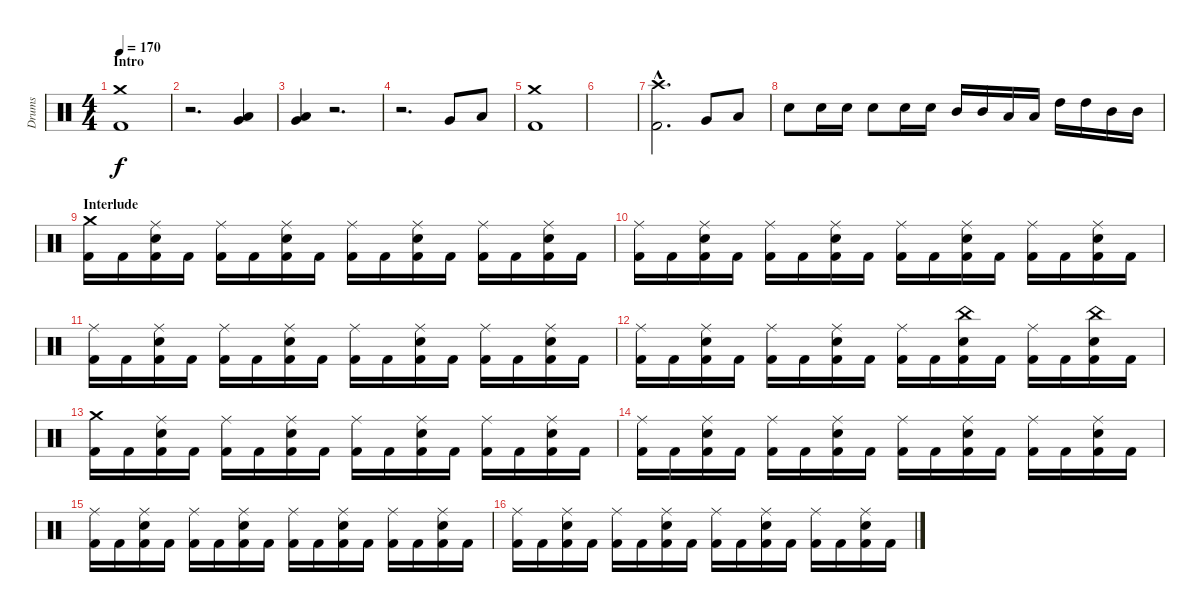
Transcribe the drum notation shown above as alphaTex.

\track ("Drums" "Drums") {instrument percussion}
\staff {score}
\articulation defaults
\ts (4 4)
\section ("" "Intro")
\tempo 170
\clef neutral
\ks c
("Crash medium (hit)" "Kick (hit) 2").1{dy f} |
r.2{d} ("Very Low Tom (hit)" "Low Tom (hit)").4 |
("Very Low Tom (hit)" "Low Tom (hit)").4 r.2{d} |
r.2{d} "Very Low Tom (hit)".8 "Low Tom (hit)".8 |
("Crash medium (hit)" "Kick (hit) 2").1 |
|
("Crash high (hit)"{hac} "Kick (hit) 2"{hac}).2{d} "Very Low Tom (hit)".8 "Low Floor Tom (hit)".8 |
"Electric Snare (hit)".8 "Electric Snare (hit)".16 "Electric Snare (hit)".16 "Electric Snare (hit)".8 "Electric Snare (hit)".16 "Electric Snare (hit)".16 "Mid Tom (hit)".16 "Mid Tom (hit)".16 "Low Tom (hit)".16 "Low Tom (hit)".16 "High Tom (hit)".16 "High Tom (hit)".16 "Mid Tom (hit)".16 "Mid Tom (hit)".16 |
\section ("" "Interlude")
("Crash medium (hit)" "Kick (hit) 2").16 "Kick (hit) 2".16 ("Ride (middle)" "Electric Snare (hit)" "Kick (hit) 2").16 "Kick (hit) 2".16 ("Ride (middle)" "Kick (hit) 2").16 "Kick (hit) 2".16 ("Ride (middle)" "Electric Snare (hit)" "Kick (hit) 2").16 "Kick (hit) 2".16 ("Ride (middle)" "Kick (hit) 2").16 "Kick (hit) 2".16 ("Ride (middle)" "Electric Snare (hit)" "Kick (hit) 2").16 "Kick (hit) 2".16 ("Ride (middle)" "Kick (hit) 2").16 "Kick (hit) 2".16 ("Ride (middle)" "Electric Snare (hit)" "Kick (hit) 2").16 "Kick (hit) 2".16 |
("Ride (middle)" "Kick (hit) 2").16 "Kick (hit) 2".16 ("Ride (middle)" "Electric Snare (hit)" "Kick (hit) 2").16 "Kick (hit) 2".16 ("Ride (middle)" "Kick (hit) 2").16 "Kick (hit) 2".16 ("Ride (middle)" "Electric Snare (hit)" "Kick (hit) 2").16 "Kick (hit) 2".16 ("Ride (middle)" "Kick (hit) 2").16 "Kick (hit) 2".16 ("Ride (middle)" "Electric Snare (hit)" "Kick (hit) 2").16 "Kick (hit) 2".16 ("Ride (middle)" "Kick (hit) 2").16 "Kick (hit) 2".16 ("Ride (middle)" "Electric Snare (hit)" "Kick (hit) 2").16 "Kick (hit) 2".16 |
("Ride (middle)" "Kick (hit) 2").16 "Kick (hit) 2".16 ("Ride (middle)" "Electric Snare (hit)" "Kick (hit) 2").16 "Kick (hit) 2".16 ("Ride (middle)" "Kick (hit) 2").16 "Kick (hit) 2".16 ("Ride (middle)" "Electric Snare (hit)" "Kick (hit) 2").16 "Kick (hit) 2".16 ("Ride (middle)" "Kick (hit) 2").16 "Kick (hit) 2".16 ("Ride (middle)" "Electric Snare (hit)" "Kick (hit) 2").16 "Kick (hit) 2".16 ("Ride (middle)" "Kick (hit) 2").16 "Kick (hit) 2".16 ("Ride (middle)" "Electric Snare (hit)" "Kick (hit) 2").16 "Kick (hit) 2".16 |
("Ride (middle)" "Kick (hit) 2").16 "Kick (hit) 2".16 ("Ride (middle)" "Electric Snare (hit)" "Kick (hit) 2").16 "Kick (hit) 2".16 ("Ride (middle)" "Kick (hit) 2").16 "Kick (hit) 2".16 ("Ride (middle)" "Electric Snare (hit)" "Kick (hit) 2").16 "Kick (hit) 2".16 ("Ride (middle)" "Kick (hit) 2").16 "Kick (hit) 2".16 ("China (hit)" "Electric Snare (hit)" "Kick (hit) 2").16 "Kick (hit) 2".16 ("Ride (middle)" "Kick (hit) 2").16 "Kick (hit) 2".16 ("China (hit)" "Electric Snare (hit)" "Kick (hit) 2").16 "Kick (hit) 2".16 |
("Crash medium (hit)" "Kick (hit) 2").16 "Kick (hit) 2".16 ("Ride (middle)" "Electric Snare (hit)" "Kick (hit) 2").16 "Kick (hit) 2".16 ("Ride (middle)" "Kick (hit) 2").16 "Kick (hit) 2".16 ("Ride (middle)" "Electric Snare (hit)" "Kick (hit) 2").16 "Kick (hit) 2".16 ("Ride (middle)" "Kick (hit) 2").16 "Kick (hit) 2".16 ("Ride (middle)" "Electric Snare (hit)" "Kick (hit) 2").16 "Kick (hit) 2".16 ("Ride (middle)" "Kick (hit) 2").16 "Kick (hit) 2".16 ("Ride (middle)" "Electric Snare (hit)" "Kick (hit) 2").16 "Kick (hit) 2".16 |
("Ride (middle)" "Kick (hit) 2").16 "Kick (hit) 2".16 ("Ride (middle)" "Electric Snare (hit)" "Kick (hit) 2").16 "Kick (hit) 2".16 ("Ride (middle)" "Kick (hit) 2").16 "Kick (hit) 2".16 ("Ride (middle)" "Electric Snare (hit)" "Kick (hit) 2").16 "Kick (hit) 2".16 ("Ride (middle)" "Kick (hit) 2").16 "Kick (hit) 2".16 ("Ride (middle)" "Electric Snare (hit)" "Kick (hit) 2").16 "Kick (hit) 2".16 ("Ride (middle)" "Kick (hit) 2").16 "Kick (hit) 2".16 ("Ride (middle)" "Electric Snare (hit)" "Kick (hit) 2").16 "Kick (hit) 2".16 |
("Ride (middle)" "Kick (hit) 2").16 "Kick (hit) 2".16 ("Ride (middle)" "Electric Snare (hit)" "Kick (hit) 2").16 "Kick (hit) 2".16 ("Ride (middle)" "Kick (hit) 2").16 "Kick (hit) 2".16 ("Ride (middle)" "Electric Snare (hit)" "Kick (hit) 2").16 "Kick (hit) 2".16 ("Ride (middle)" "Kick (hit) 2").16 "Kick (hit) 2".16 ("Ride (middle)" "Electric Snare (hit)" "Kick (hit) 2").16 "Kick (hit) 2".16 ("Ride (middle)" "Kick (hit) 2").16 "Kick (hit) 2".16 ("Ride (middle)" "Electric Snare (hit)" "Kick (hit) 2").16 "Kick (hit) 2".16 |
("Ride (middle)" "Kick (hit) 2").16 "Kick (hit) 2".16 ("Ride (middle)" "Electric Snare (hit)" "Kick (hit) 2").16 "Kick (hit) 2".16 ("Ride (middle)" "Kick (hit) 2").16 "Kick (hit) 2".16 ("Ride (middle)" "Electric Snare (hit)" "Kick (hit) 2").16 "Kick (hit) 2".16 ("Ride (middle)" "Kick (hit) 2").16 "Kick (hit) 2".16 ("Ride (middle)" "Electric Snare (hit)" "Kick (hit) 2").16 "Kick (hit) 2".16 ("Ride (middle)" "Kick (hit) 2").16 "Kick (hit) 2".16 ("Ride (middle)" "Electric Snare (hit)" "Kick (hit) 2").16 "Kick (hit) 2".16
